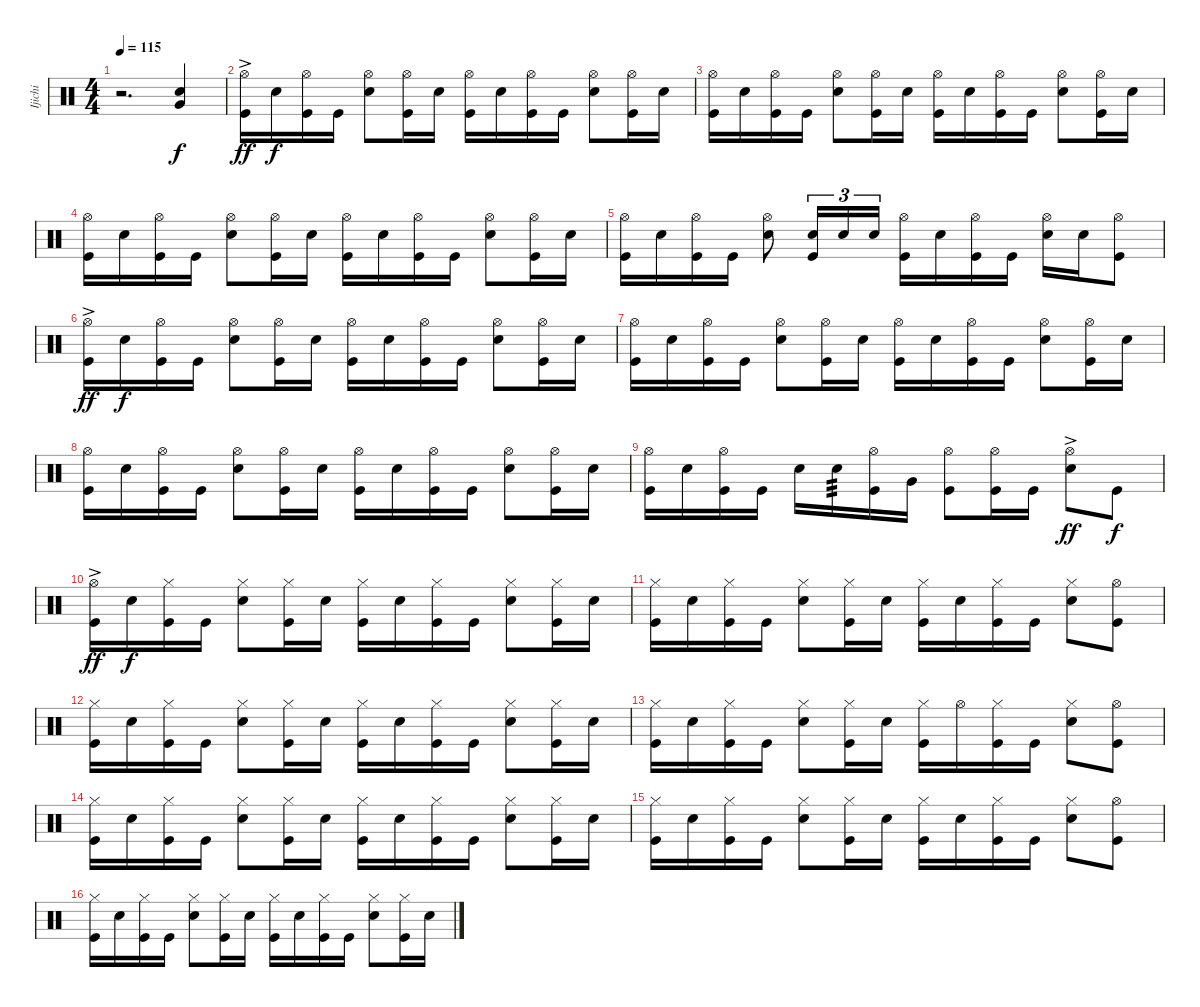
\track ("Ijichi" "Ijichi") {instrument percussion}
\staff {score}
\articulation defaults
\ts (4 4)
\tempo 115
\clef neutral
\ks c
r.2{d dy f} ("Snare (hit) 2" "Very Low Tom (hit)").4 |
("Hi-Hat (open)"{ac} "Kick (hit)").16{dy ff} "Snare (hit) 2".16{dy f} ("Hi-Hat (open)" "Kick (hit)").16 "Kick (hit)".16 ("Hi-Hat (open)" "Snare (hit) 2").8 ("Hi-Hat (open)" "Kick (hit)").16 "Snare (hit) 2".16 ("Hi-Hat (open)" "Kick (hit)").16 "Snare (hit) 2".16 ("Hi-Hat (open)" "Kick (hit)").16 "Kick (hit)".16 ("Hi-Hat (open)" "Snare (hit) 2").8 ("Hi-Hat (open)" "Kick (hit)").16 "Snare (hit) 2".16 |
("Hi-Hat (open)" "Kick (hit)").16 "Snare (hit) 2".16 ("Hi-Hat (open)" "Kick (hit)").16 "Kick (hit)".16 ("Hi-Hat (open)" "Snare (hit) 2").8 ("Hi-Hat (open)" "Kick (hit)").16 "Snare (hit) 2".16 ("Hi-Hat (open)" "Kick (hit)").16 "Snare (hit) 2".16 ("Hi-Hat (open)" "Kick (hit)").16 "Kick (hit)".16 ("Hi-Hat (open)" "Snare (hit) 2").8 ("Hi-Hat (open)" "Kick (hit)").16 "Snare (hit) 2".16 |
("Hi-Hat (open)" "Kick (hit)").16 "Snare (hit) 2".16 ("Hi-Hat (open)" "Kick (hit)").16 "Kick (hit)".16 ("Hi-Hat (open)" "Snare (hit) 2").8 ("Hi-Hat (open)" "Kick (hit)").16 "Snare (hit) 2".16 ("Hi-Hat (open)" "Kick (hit)").16 "Snare (hit) 2".16 ("Hi-Hat (open)" "Kick (hit)").16 "Kick (hit)".16 ("Hi-Hat (open)" "Snare (hit) 2").8 ("Hi-Hat (open)" "Kick (hit)").16 "Snare (hit) 2".16 |
("Hi-Hat (open)" "Kick (hit)").16 "Snare (hit) 2".16 ("Hi-Hat (open)" "Kick (hit)").16 "Kick (hit)".16 ("Hi-Hat (open)" "Snare (hit) 2").8 ("Snare (hit) 2" "Kick (hit)").16{tu (3 2)} "Snare (hit) 2".16{tu (3 2)} "Snare (hit) 2".16{tu (3 2)} ("Hi-Hat (open)" "Kick (hit)").16 "Snare (hit) 2".16 ("Hi-Hat (open)" "Kick (hit)").16 "Kick (hit)".16 ("Hi-Hat (open)" "Snare (hit) 2").16 "Snare (hit) 2".16 ("Hi-Hat (open)" "Kick (hit)").8 |
("Hi-Hat (open)"{ac} "Kick (hit)").16{dy ff} "Snare (hit) 2".16{dy f} ("Hi-Hat (open)" "Kick (hit)").16 "Kick (hit)".16 ("Hi-Hat (open)" "Snare (hit) 2").8 ("Hi-Hat (open)" "Kick (hit)").16 "Snare (hit) 2".16 ("Hi-Hat (open)" "Kick (hit)").16 "Snare (hit) 2".16 ("Hi-Hat (open)" "Kick (hit)").16 "Kick (hit)".16 ("Hi-Hat (open)" "Snare (hit) 2").8 ("Hi-Hat (open)" "Kick (hit)").16 "Snare (hit) 2".16 |
("Hi-Hat (open)" "Kick (hit)").16 "Snare (hit) 2".16 ("Hi-Hat (open)" "Kick (hit)").16 "Kick (hit)".16 ("Hi-Hat (open)" "Snare (hit) 2").8 ("Hi-Hat (open)" "Kick (hit)").16 "Snare (hit) 2".16 ("Hi-Hat (open)" "Kick (hit)").16 "Snare (hit) 2".16 ("Hi-Hat (open)" "Kick (hit)").16 "Kick (hit)".16 ("Hi-Hat (open)" "Snare (hit) 2").8 ("Hi-Hat (open)" "Kick (hit)").16 "Snare (hit) 2".16 |
("Hi-Hat (open)" "Kick (hit)").16 "Snare (hit) 2".16 ("Hi-Hat (open)" "Kick (hit)").16 "Kick (hit)".16 ("Hi-Hat (open)" "Snare (hit) 2").8 ("Hi-Hat (open)" "Kick (hit)").16 "Snare (hit) 2".16 ("Hi-Hat (open)" "Kick (hit)").16 "Snare (hit) 2".16 ("Hi-Hat (open)" "Kick (hit)").16 "Kick (hit)".16 ("Hi-Hat (open)" "Snare (hit) 2").8 ("Hi-Hat (open)" "Kick (hit)").16 "Snare (hit) 2".16 |
("Hi-Hat (open)" "Kick (hit)").16 "Snare (hit) 2".16 ("Hi-Hat (open)" "Kick (hit)").16 "Kick (hit)".16 "Snare (hit) 2".16 "Snare (hit) 2".16{tp 3} ("Hi-Hat (open)" "Kick (hit)").16 "Very Low Tom (hit)".16 ("Hi-Hat (open)" "Kick (hit)").8 ("Hi-Hat (open)" "Kick (hit)").16 "Kick (hit)".16 ("Hi-Hat (open)"{ac} "Snare (hit) 2").8{dy ff} "Kick (hit)".8{dy f} |
("Hi-Hat (open)"{ac} "Kick (hit)").16{dy ff} "Snare (hit) 2".16{dy f} ("Hi-Hat (closed)" "Kick (hit)").16 "Kick (hit)".16 ("Hi-Hat (closed)" "Snare (hit) 2").8 ("Hi-Hat (closed)" "Kick (hit)").16 "Snare (hit) 2".16 ("Hi-Hat (closed)" "Kick (hit)").16 "Snare (hit) 2".16 ("Hi-Hat (closed)" "Kick (hit)").16 "Kick (hit)".16 ("Hi-Hat (closed)" "Snare (hit) 2").8 ("Hi-Hat (closed)" "Kick (hit)").16 "Snare (hit) 2".16 |
("Hi-Hat (closed)" "Kick (hit)").16 "Snare (hit) 2".16 ("Hi-Hat (closed)" "Kick (hit)").16 "Kick (hit)".16 ("Hi-Hat (closed)" "Snare (hit) 2").8 ("Hi-Hat (closed)" "Kick (hit)").16 "Snare (hit) 2".16 ("Hi-Hat (closed)" "Kick (hit)").16 "Snare (hit) 2".16 ("Hi-Hat (closed)" "Kick (hit)").16 "Kick (hit)".16 ("Hi-Hat (closed)" "Snare (hit) 2").8 ("Hi-Hat (open)" "Kick (hit)").8 |
("Hi-Hat (closed)" "Kick (hit)").16 "Snare (hit) 2".16 ("Hi-Hat (closed)" "Kick (hit)").16 "Kick (hit)".16 ("Hi-Hat (closed)" "Snare (hit) 2").8 ("Hi-Hat (closed)" "Kick (hit)").16 "Snare (hit) 2".16 ("Hi-Hat (closed)" "Kick (hit)").16 "Snare (hit) 2".16 ("Hi-Hat (closed)" "Kick (hit)").16 "Kick (hit)".16 ("Hi-Hat (closed)" "Snare (hit) 2").8 ("Hi-Hat (closed)" "Kick (hit)").16 "Snare (hit) 2".16 |
("Hi-Hat (closed)" "Kick (hit)").16 "Snare (hit) 2".16 ("Hi-Hat (closed)" "Kick (hit)").16 "Kick (hit)".16 ("Hi-Hat (closed)" "Snare (hit) 2").8 ("Hi-Hat (closed)" "Kick (hit)").16 "Snare (hit) 2".16 ("Hi-Hat (closed)" "Kick (hit)").16 "Hi-Hat (open)".16 ("Hi-Hat (closed)" "Kick (hit)").16 "Kick (hit)".16 ("Hi-Hat (closed)" "Snare (hit) 2").8 ("Hi-Hat (open)" "Kick (hit)").8 |
("Hi-Hat (closed)" "Kick (hit)").16 "Snare (hit) 2".16 ("Hi-Hat (closed)" "Kick (hit)").16 "Kick (hit)".16 ("Hi-Hat (closed)" "Snare (hit) 2").8 ("Hi-Hat (closed)" "Kick (hit)").16 "Snare (hit) 2".16 ("Hi-Hat (closed)" "Kick (hit)").16 "Snare (hit) 2".16 ("Hi-Hat (closed)" "Kick (hit)").16 "Kick (hit)".16 ("Hi-Hat (closed)" "Snare (hit) 2").8 ("Hi-Hat (closed)" "Kick (hit)").16 "Snare (hit) 2".16 |
("Hi-Hat (closed)" "Kick (hit)").16 "Snare (hit) 2".16 ("Hi-Hat (closed)" "Kick (hit)").16 "Kick (hit)".16 ("Hi-Hat (closed)" "Snare (hit) 2").8 ("Hi-Hat (closed)" "Kick (hit)").16 "Snare (hit) 2".16 ("Hi-Hat (closed)" "Kick (hit)").16 "Snare (hit) 2".16 ("Hi-Hat (closed)" "Kick (hit)").16 "Kick (hit)".16 ("Hi-Hat (closed)" "Snare (hit) 2").8 ("Hi-Hat (open)" "Kick (hit)").8 |
("Hi-Hat (closed)" "Kick (hit)").16 "Snare (hit) 2".16 ("Hi-Hat (closed)" "Kick (hit)").16 "Kick (hit)".16 ("Hi-Hat (closed)" "Snare (hit) 2").8 ("Hi-Hat (closed)" "Kick (hit)").16 "Snare (hit) 2".16 ("Hi-Hat (closed)" "Kick (hit)").16 "Snare (hit) 2".16 ("Hi-Hat (closed)" "Kick (hit)").16 "Kick (hit)".16 ("Hi-Hat (closed)" "Snare (hit) 2").8 ("Hi-Hat (closed)" "Kick (hit)").16 "Snare (hit) 2".16
